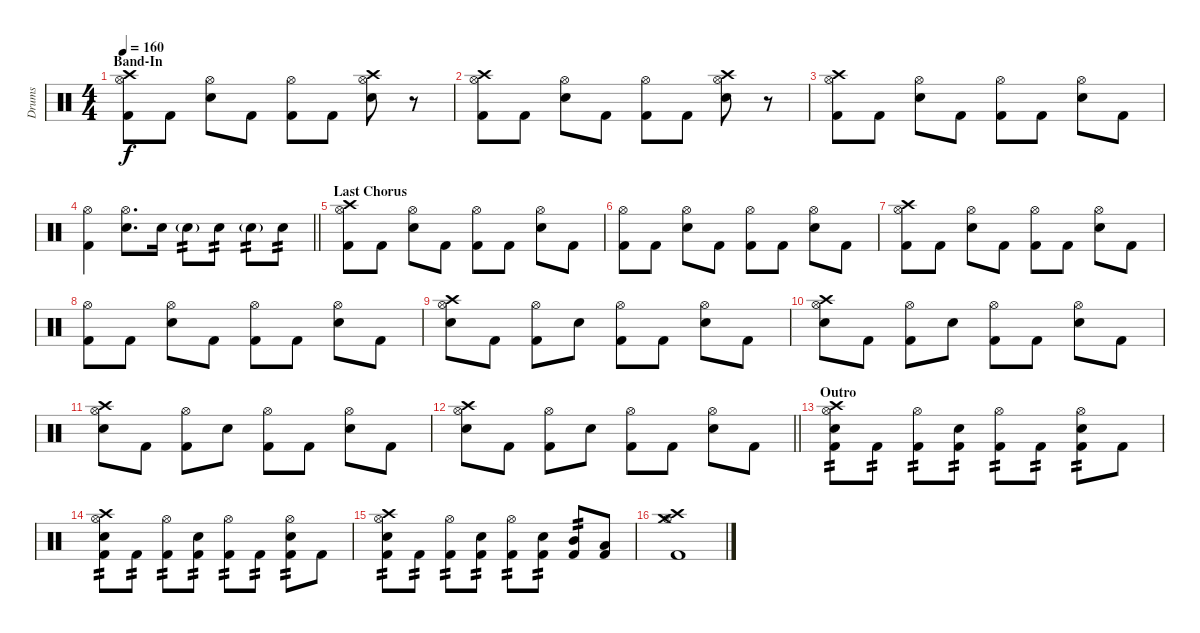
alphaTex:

\track ("Drums" "Drums") {instrument percussion}
\staff {score}
\articulation defaults
\ts (4 4)
\section ("" "Band-In")
\tempo 160
\clef neutral
\ks c
("Crash high (hit)" "Hi-Hat (open)" "Kick (hit) 2").8{dy f} "Kick (hit) 2".8 ("Hi-Hat (open)" "Electric Snare (hit)").8 "Kick (hit) 2".8 ("Hi-Hat (open)" "Kick (hit) 2").8 "Kick (hit) 2".8 ("Crash high (hit)" "Hi-Hat (open)" "Electric Snare (hit)").8 r.8 |
("Crash high (hit)" "Hi-Hat (open)" "Kick (hit) 2").8 "Kick (hit) 2".8 ("Hi-Hat (open)" "Electric Snare (hit)").8 "Kick (hit) 2".8 ("Hi-Hat (open)" "Kick (hit) 2").8 "Kick (hit) 2".8 ("Crash high (hit)" "Hi-Hat (open)" "Electric Snare (hit)").8 r.8 |
("Crash high (hit)" "Hi-Hat (open)" "Kick (hit) 2").8 "Kick (hit) 2".8 ("Hi-Hat (open)" "Electric Snare (hit)").8 "Kick (hit) 2".8 ("Hi-Hat (open)" "Kick (hit) 2").8 "Kick (hit) 2".8 ("Hi-Hat (open)" "Electric Snare (hit)").8 "Kick (hit) 2".8 |
\barLineRight lightlight
("Hi-Hat (open)" "Kick (hit) 2").4 ("Hi-Hat (open)" "Electric Snare (hit)").8{d} "Electric Snare (hit)".16 "Electric Snare (hit)"{g}.8{tp 2} "Electric Snare (hit)".8{tp 2} "Electric Snare (hit)"{g}.8{tp 2} "Electric Snare (hit)".8{tp 2} |
\section ("" "Last Chorus")
("Crash high (hit)" "Hi-Hat (open)" "Kick (hit) 2").8 "Kick (hit) 2".8 ("Hi-Hat (open)" "Electric Snare (hit)").8 "Kick (hit) 2".8 ("Hi-Hat (open)" "Kick (hit) 2").8 "Kick (hit) 2".8 ("Hi-Hat (open)" "Electric Snare (hit)").8 "Kick (hit) 2".8 |
("Hi-Hat (open)" "Kick (hit) 2").8 "Kick (hit) 2".8 ("Hi-Hat (open)" "Electric Snare (hit)").8 "Kick (hit) 2".8 ("Hi-Hat (open)" "Kick (hit) 2").8 "Kick (hit) 2".8 ("Hi-Hat (open)" "Electric Snare (hit)").8 "Kick (hit) 2".8 |
("Crash high (hit)" "Hi-Hat (open)" "Kick (hit) 2").8 "Kick (hit) 2".8 ("Hi-Hat (open)" "Electric Snare (hit)").8 "Kick (hit) 2".8 ("Hi-Hat (open)" "Kick (hit) 2").8 "Kick (hit) 2".8 ("Hi-Hat (open)" "Electric Snare (hit)").8 "Kick (hit) 2".8 |
("Hi-Hat (open)" "Kick (hit) 2").8 "Kick (hit) 2".8 ("Hi-Hat (open)" "Electric Snare (hit)").8 "Kick (hit) 2".8 ("Hi-Hat (open)" "Kick (hit) 2").8 "Kick (hit) 2".8 ("Hi-Hat (open)" "Electric Snare (hit)").8 "Kick (hit) 2".8 |
("Crash high (hit)" "Hi-Hat (open)" "Electric Snare (hit)").8 "Kick (hit) 2".8 ("Hi-Hat (open)" "Kick (hit) 2").8 "Electric Snare (hit)".8 ("Hi-Hat (open)" "Kick (hit) 2").8 "Kick (hit) 2".8 ("Hi-Hat (open)" "Electric Snare (hit)").8 "Kick (hit) 2".8 |
("Crash high (hit)" "Hi-Hat (open)" "Electric Snare (hit)").8 "Kick (hit) 2".8 ("Hi-Hat (open)" "Kick (hit) 2").8 "Electric Snare (hit)".8 ("Hi-Hat (open)" "Kick (hit) 2").8 "Kick (hit) 2".8 ("Hi-Hat (open)" "Electric Snare (hit)").8 "Kick (hit) 2".8 |
("Crash high (hit)" "Hi-Hat (open)" "Electric Snare (hit)").8 "Kick (hit) 2".8 ("Hi-Hat (open)" "Kick (hit) 2").8 "Electric Snare (hit)".8 ("Hi-Hat (open)" "Kick (hit) 2").8 "Kick (hit) 2".8 ("Hi-Hat (open)" "Electric Snare (hit)").8 "Kick (hit) 2".8 |
\barLineRight lightlight
("Crash high (hit)" "Hi-Hat (open)" "Electric Snare (hit)").8 "Kick (hit) 2".8 ("Hi-Hat (open)" "Kick (hit) 2").8 "Electric Snare (hit)".8 ("Hi-Hat (open)" "Kick (hit) 2").8 "Kick (hit) 2".8 ("Hi-Hat (open)" "Electric Snare (hit)").8 "Kick (hit) 2".8 |
\section ("" "Outro")
("Crash high (hit)" "Hi-Hat (open)" "Electric Snare (hit)" "Kick (hit) 2").8{tp 2} "Kick (hit) 2".8{tp 2} ("Hi-Hat (open)" "Kick (hit) 2").8{tp 2} ("Electric Snare (hit)" "Kick (hit) 2").8{tp 2} ("Hi-Hat (open)" "Kick (hit) 2").8{tp 2} "Kick (hit) 2".8{tp 2} ("Hi-Hat (open)" "Electric Snare (hit)" "Kick (hit) 2").8{tp 2} "Kick (hit) 2".8 |
("Crash high (hit)" "Hi-Hat (open)" "Electric Snare (hit)" "Kick (hit) 2").8{tp 2} "Kick (hit) 2".8{tp 2} ("Hi-Hat (open)" "Kick (hit) 2").8{tp 2} ("Electric Snare (hit)" "Kick (hit) 2").8{tp 2} ("Hi-Hat (open)" "Kick (hit) 2").8{tp 2} "Kick (hit) 2".8{tp 2} ("Hi-Hat (open)" "Electric Snare (hit)" "Kick (hit) 2").8{tp 2} "Kick (hit) 2".8 |
("Crash high (hit)" "Hi-Hat (open)" "Electric Snare (hit)" "Kick (hit) 2").8{tp 2} "Kick (hit) 2".8{tp 2} ("Hi-Hat (open)" "Kick (hit) 2").8{tp 2} ("Electric Snare (hit)" "Kick (hit) 2").8{tp 2} ("Hi-Hat (open)" "Kick (hit) 2").8{tp 2} ("Electric Snare (hit)" "Kick (hit) 2").8{tp 2} ("Mid Tom (hit)" "Kick (hit) 2").8{tp 2} ("Low Tom (hit)" "Kick (hit) 2").8 |
("Crash high (hit)" "Crash medium (hit)" "Hi-Hat (open)" "Kick (hit) 2").1
